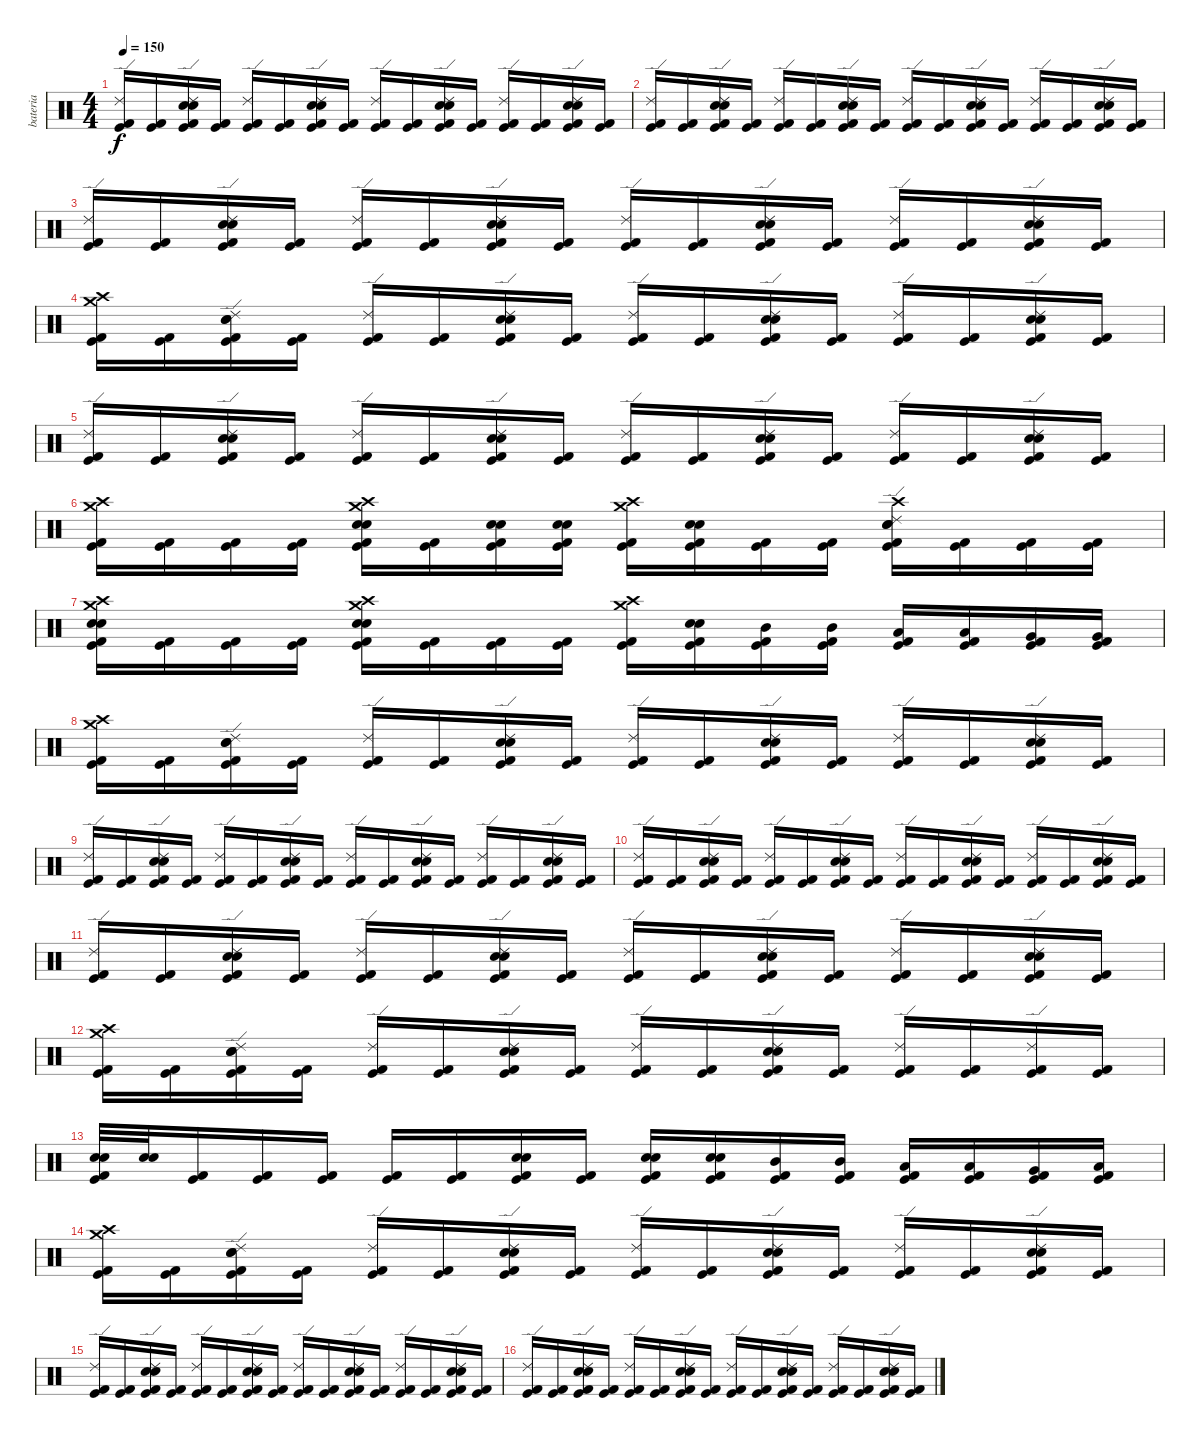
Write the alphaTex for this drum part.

\track ("bateria" "bateria") {instrument percussion}
\staff {score}
\articulation defaults
\ts (4 4)
\tempo 150
\clef neutral
\ks c
("Ride (edge) 2" "Kick (hit) 2" "Kick (hit)").16{dy f} ("Kick (hit) 2" "Kick (hit)").16 ("Ride (edge) 2" "Snare (hit) 2" "Electric Snare (hit)" "Kick (hit) 2" "Kick (hit)").16 ("Kick (hit) 2" "Kick (hit)").16 ("Ride (edge) 2" "Kick (hit) 2" "Kick (hit)").16 ("Kick (hit) 2" "Kick (hit)").16 ("Ride (edge) 2" "Electric Snare (hit)" "Snare (hit) 2" "Kick (hit) 2" "Kick (hit)").16 ("Kick (hit) 2" "Kick (hit)").16 ("Ride (edge) 2" "Kick (hit) 2" "Kick (hit)").16 ("Kick (hit) 2" "Kick (hit)").16 ("Ride (edge) 2" "Snare (hit) 2" "Electric Snare (hit)" "Kick (hit) 2" "Kick (hit)").16 ("Kick (hit) 2" "Kick (hit)").16 ("Ride (edge) 2" "Kick (hit) 2" "Kick (hit)").16 ("Kick (hit) 2" "Kick (hit)").16 ("Ride (edge) 2" "Electric Snare (hit)" "Snare (hit) 2" "Kick (hit) 2" "Kick (hit)").16 ("Kick (hit) 2" "Kick (hit)").16 |
("Ride (edge) 2" "Kick (hit) 2" "Kick (hit)").16 ("Kick (hit) 2" "Kick (hit)").16 ("Ride (edge) 2" "Snare (hit) 2" "Electric Snare (hit)" "Kick (hit) 2" "Kick (hit)").16 ("Kick (hit) 2" "Kick (hit)").16 ("Ride (edge) 2" "Kick (hit) 2" "Kick (hit)").16 ("Kick (hit) 2" "Kick (hit)").16 ("Ride (edge) 2" "Electric Snare (hit)" "Snare (hit) 2" "Kick (hit) 2" "Kick (hit)").16 ("Kick (hit) 2" "Kick (hit)").16 ("Ride (edge) 2" "Kick (hit) 2" "Kick (hit)").16 ("Kick (hit) 2" "Kick (hit)").16 ("Ride (edge) 2" "Snare (hit) 2" "Electric Snare (hit)" "Kick (hit) 2" "Kick (hit)").16 ("Kick (hit) 2" "Kick (hit)").16 ("Ride (edge) 2" "Kick (hit) 2" "Kick (hit)").16 ("Kick (hit) 2" "Kick (hit)").16 ("Ride (edge) 2" "Electric Snare (hit)" "Snare (hit) 2" "Kick (hit) 2" "Kick (hit)").16 ("Kick (hit) 2" "Kick (hit)").16 |
("Ride (edge) 2" "Kick (hit) 2" "Kick (hit)").16 ("Kick (hit) 2" "Kick (hit)").16 ("Ride (edge) 2" "Snare (hit) 2" "Electric Snare (hit)" "Kick (hit) 2" "Kick (hit)").16 ("Kick (hit) 2" "Kick (hit)").16 ("Ride (edge) 2" "Kick (hit) 2" "Kick (hit)").16 ("Kick (hit) 2" "Kick (hit)").16 ("Ride (edge) 2" "Electric Snare (hit)" "Snare (hit) 2" "Kick (hit) 2" "Kick (hit)").16 ("Kick (hit) 2" "Kick (hit)").16 ("Ride (edge) 2" "Kick (hit) 2" "Kick (hit)").16 ("Kick (hit) 2" "Kick (hit)").16 ("Ride (edge) 2" "Snare (hit) 2" "Electric Snare (hit)" "Kick (hit) 2" "Kick (hit)").16 ("Kick (hit) 2" "Kick (hit)").16 ("Ride (edge) 2" "Kick (hit) 2" "Kick (hit)").16 ("Kick (hit) 2" "Kick (hit)").16 ("Ride (edge) 2" "Electric Snare (hit)" "Snare (hit) 2" "Kick (hit) 2" "Kick (hit)").16 ("Kick (hit) 2" "Kick (hit)").16 |
("Crash high (hit)" "Crash medium (hit)" "Kick (hit) 2" "Kick (hit)").16 ("Kick (hit) 2" "Kick (hit)").16 ("Ride (edge) 2" "Snare (hit) 2" "Electric Snare (hit)" "Kick (hit) 2" "Kick (hit)").16 ("Kick (hit) 2" "Kick (hit)").16 ("Ride (edge) 2" "Kick (hit) 2" "Kick (hit)").16 ("Kick (hit) 2" "Kick (hit)").16 ("Ride (edge) 2" "Electric Snare (hit)" "Snare (hit) 2" "Kick (hit) 2" "Kick (hit)").16 ("Kick (hit) 2" "Kick (hit)").16 ("Ride (edge) 2" "Kick (hit) 2" "Kick (hit)").16 ("Kick (hit) 2" "Kick (hit)").16 ("Ride (edge) 2" "Snare (hit) 2" "Electric Snare (hit)" "Kick (hit) 2" "Kick (hit)").16 ("Kick (hit) 2" "Kick (hit)").16 ("Ride (edge) 2" "Kick (hit) 2" "Kick (hit)").16 ("Kick (hit) 2" "Kick (hit)").16 ("Ride (edge) 2" "Electric Snare (hit)" "Snare (hit) 2" "Kick (hit) 2" "Kick (hit)").16 ("Kick (hit) 2" "Kick (hit)").16 |
("Ride (edge) 2" "Kick (hit) 2" "Kick (hit)").16 ("Kick (hit) 2" "Kick (hit)").16 ("Ride (edge) 2" "Snare (hit) 2" "Electric Snare (hit)" "Kick (hit) 2" "Kick (hit)").16 ("Kick (hit) 2" "Kick (hit)").16 ("Ride (edge) 2" "Kick (hit) 2" "Kick (hit)").16 ("Kick (hit) 2" "Kick (hit)").16 ("Ride (edge) 2" "Electric Snare (hit)" "Snare (hit) 2" "Kick (hit) 2" "Kick (hit)").16 ("Kick (hit) 2" "Kick (hit)").16 ("Ride (edge) 2" "Kick (hit) 2" "Kick (hit)").16 ("Kick (hit) 2" "Kick (hit)").16 ("Ride (edge) 2" "Snare (hit) 2" "Electric Snare (hit)" "Kick (hit) 2" "Kick (hit)").16 ("Kick (hit) 2" "Kick (hit)").16 ("Ride (edge) 2" "Kick (hit) 2" "Kick (hit)").16 ("Kick (hit) 2" "Kick (hit)").16 ("Ride (edge) 2" "Electric Snare (hit)" "Snare (hit) 2" "Kick (hit) 2" "Kick (hit)").16 ("Kick (hit) 2" "Kick (hit)").16 |
("Crash high (hit)" "Crash medium (hit)" "Kick (hit) 2" "Kick (hit)").16 ("Kick (hit) 2" "Kick (hit)").16 ("Kick (hit) 2" "Kick (hit)").16 ("Kick (hit) 2" "Kick (hit)").16 ("Electric Snare (hit)" "Snare (hit) 2" "Crash high (hit)" "Crash medium (hit)" "Kick (hit) 2" "Kick (hit)").16 ("Kick (hit) 2" "Kick (hit)").16 ("Snare (hit) 2" "Electric Snare (hit)" "Kick (hit) 2" "Kick (hit)").16 ("Electric Snare (hit)" "Snare (hit) 2" "Kick (hit) 2" "Kick (hit)").16 ("Crash high (hit)" "Crash medium (hit)" "Kick (hit) 2" "Kick (hit)").16 ("Electric Snare (hit)" "Snare (hit) 2" "Kick (hit) 2" "Kick (hit)").16 ("Kick (hit) 2" "Kick (hit)").16 ("Kick (hit) 2" "Kick (hit)").16 ("Electric Snare (hit)" "Crash high (hit)" "Snare (hit) 2" "Ride (edge) 2" "Kick (hit) 2" "Kick (hit)").16 ("Kick (hit) 2" "Kick (hit)").16 ("Kick (hit) 2" "Kick (hit)").16 ("Kick (hit) 2" "Kick (hit)").16 |
("Electric Snare (hit)" "Snare (hit) 2" "Crash high (hit)" "Crash medium (hit)" "Kick (hit) 2" "Kick (hit)").16 ("Kick (hit) 2" "Kick (hit)").16 ("Kick (hit) 2" "Kick (hit)").16 ("Kick (hit) 2" "Kick (hit)").16 ("Crash high (hit)" "Electric Snare (hit)" "Snare (hit) 2" "Crash medium (hit)" "Kick (hit) 2" "Kick (hit)").16 ("Kick (hit) 2" "Kick (hit)").16 ("Kick (hit) 2" "Kick (hit)").16 ("Kick (hit) 2" "Kick (hit)").16 ("Crash high (hit)" "Crash medium (hit)" "Kick (hit) 2" "Kick (hit)").16 ("Snare (hit) 2" "Electric Snare (hit)" "Kick (hit) 2" "Kick (hit)").16 ("Mid Tom (hit)" "Kick (hit) 2" "Kick (hit)").16 ("Mid Tom (hit)" "Kick (hit) 2" "Kick (hit)").16 ("Low Tom (hit)" "Kick (hit) 2" "Kick (hit)").16 ("Low Tom (hit)" "Kick (hit) 2" "Kick (hit)").16 ("Very Low Tom (hit)" "Kick (hit) 2" "Kick (hit)").16 ("Very Low Tom (hit)" "Kick (hit) 2" "Kick (hit)").16 |
("Crash high (hit)" "Crash medium (hit)" "Kick (hit) 2" "Kick (hit)").16 ("Kick (hit) 2" "Kick (hit)").16 ("Ride (edge) 2" "Snare (hit) 2" "Electric Snare (hit)" "Kick (hit) 2" "Kick (hit)").16 ("Kick (hit) 2" "Kick (hit)").16 ("Ride (edge) 2" "Kick (hit) 2" "Kick (hit)").16 ("Kick (hit) 2" "Kick (hit)").16 ("Ride (edge) 2" "Electric Snare (hit)" "Snare (hit) 2" "Kick (hit) 2" "Kick (hit)").16 ("Kick (hit) 2" "Kick (hit)").16 ("Ride (edge) 2" "Kick (hit) 2" "Kick (hit)").16 ("Kick (hit) 2" "Kick (hit)").16 ("Ride (edge) 2" "Snare (hit) 2" "Electric Snare (hit)" "Kick (hit) 2" "Kick (hit)").16 ("Kick (hit) 2" "Kick (hit)").16 ("Ride (edge) 2" "Kick (hit) 2" "Kick (hit)").16 ("Kick (hit) 2" "Kick (hit)").16 ("Ride (edge) 2" "Electric Snare (hit)" "Snare (hit) 2" "Kick (hit) 2" "Kick (hit)").16 ("Kick (hit) 2" "Kick (hit)").16 |
("Ride (edge) 2" "Kick (hit) 2" "Kick (hit)").16 ("Kick (hit) 2" "Kick (hit)").16 ("Ride (edge) 2" "Snare (hit) 2" "Electric Snare (hit)" "Kick (hit) 2" "Kick (hit)").16 ("Kick (hit) 2" "Kick (hit)").16 ("Ride (edge) 2" "Kick (hit) 2" "Kick (hit)").16 ("Kick (hit) 2" "Kick (hit)").16 ("Ride (edge) 2" "Electric Snare (hit)" "Snare (hit) 2" "Kick (hit) 2" "Kick (hit)").16 ("Kick (hit) 2" "Kick (hit)").16 ("Ride (edge) 2" "Kick (hit) 2" "Kick (hit)").16 ("Kick (hit) 2" "Kick (hit)").16 ("Ride (edge) 2" "Snare (hit) 2" "Electric Snare (hit)" "Kick (hit) 2" "Kick (hit)").16 ("Kick (hit) 2" "Kick (hit)").16 ("Ride (edge) 2" "Kick (hit) 2" "Kick (hit)").16 ("Kick (hit) 2" "Kick (hit)").16 ("Ride (edge) 2" "Electric Snare (hit)" "Snare (hit) 2" "Kick (hit) 2" "Kick (hit)").16 ("Kick (hit) 2" "Kick (hit)").16 |
("Ride (edge) 2" "Kick (hit) 2" "Kick (hit)").16 ("Kick (hit) 2" "Kick (hit)").16 ("Ride (edge) 2" "Snare (hit) 2" "Electric Snare (hit)" "Kick (hit) 2" "Kick (hit)").16 ("Kick (hit) 2" "Kick (hit)").16 ("Ride (edge) 2" "Kick (hit) 2" "Kick (hit)").16 ("Kick (hit) 2" "Kick (hit)").16 ("Ride (edge) 2" "Electric Snare (hit)" "Snare (hit) 2" "Kick (hit) 2" "Kick (hit)").16 ("Kick (hit) 2" "Kick (hit)").16 ("Ride (edge) 2" "Kick (hit) 2" "Kick (hit)").16 ("Kick (hit) 2" "Kick (hit)").16 ("Ride (edge) 2" "Snare (hit) 2" "Electric Snare (hit)" "Kick (hit) 2" "Kick (hit)").16 ("Kick (hit) 2" "Kick (hit)").16 ("Ride (edge) 2" "Kick (hit) 2" "Kick (hit)").16 ("Kick (hit) 2" "Kick (hit)").16 ("Ride (edge) 2" "Electric Snare (hit)" "Snare (hit) 2" "Kick (hit) 2" "Kick (hit)").16 ("Kick (hit) 2" "Kick (hit)").16 |
("Ride (edge) 2" "Kick (hit) 2" "Kick (hit)").16 ("Kick (hit) 2" "Kick (hit)").16 ("Ride (edge) 2" "Snare (hit) 2" "Electric Snare (hit)" "Kick (hit) 2" "Kick (hit)").16 ("Kick (hit) 2" "Kick (hit)").16 ("Ride (edge) 2" "Kick (hit) 2" "Kick (hit)").16 ("Kick (hit) 2" "Kick (hit)").16 ("Ride (edge) 2" "Electric Snare (hit)" "Snare (hit) 2" "Kick (hit) 2" "Kick (hit)").16 ("Kick (hit) 2" "Kick (hit)").16 ("Ride (edge) 2" "Kick (hit) 2" "Kick (hit)").16 ("Kick (hit) 2" "Kick (hit)").16 ("Ride (edge) 2" "Snare (hit) 2" "Electric Snare (hit)" "Kick (hit) 2" "Kick (hit)").16 ("Kick (hit) 2" "Kick (hit)").16 ("Ride (edge) 2" "Kick (hit) 2" "Kick (hit)").16 ("Kick (hit) 2" "Kick (hit)").16 ("Ride (edge) 2" "Electric Snare (hit)" "Snare (hit) 2" "Kick (hit) 2" "Kick (hit)").16 ("Kick (hit) 2" "Kick (hit)").16 |
("Crash high (hit)" "Crash medium (hit)" "Kick (hit) 2" "Kick (hit)").16 ("Kick (hit) 2" "Kick (hit)").16 ("Ride (edge) 2" "Snare (hit) 2" "Electric Snare (hit)" "Kick (hit) 2" "Kick (hit)").16 ("Kick (hit) 2" "Kick (hit)").16 ("Ride (edge) 2" "Kick (hit) 2" "Kick (hit)").16 ("Kick (hit) 2" "Kick (hit)").16 ("Ride (edge) 2" "Electric Snare (hit)" "Snare (hit) 2" "Kick (hit) 2" "Kick (hit)").16 ("Kick (hit) 2" "Kick (hit)").16 ("Ride (edge) 2" "Kick (hit) 2" "Kick (hit)").16 ("Kick (hit) 2" "Kick (hit)").16 ("Ride (edge) 2" "Snare (hit) 2" "Electric Snare (hit)" "Kick (hit) 2" "Kick (hit)").16 ("Kick (hit) 2" "Kick (hit)").16 ("Ride (edge) 2" "Kick (hit) 2" "Kick (hit)").16 ("Kick (hit) 2" "Kick (hit)").16 ("Ride (edge) 2" "Kick (hit) 2" "Kick (hit)").16 ("Kick (hit) 2" "Kick (hit)").16 |
("Electric Snare (hit)" "Kick (hit) 2" "Kick (hit)" "Snare (hit) 2").32 ("Electric Snare (hit)" "Snare (hit) 2").32 ("Kick (hit) 2" "Kick (hit)").16 ("Kick (hit) 2" "Kick (hit)").16 ("Kick (hit) 2" "Kick (hit)").16 ("Kick (hit) 2" "Kick (hit)").16 ("Kick (hit) 2" "Kick (hit)").16 ("Electric Snare (hit)" "Snare (hit) 2" "Kick (hit) 2" "Kick (hit)").16 ("Kick (hit) 2" "Kick (hit)").16 ("Electric Snare (hit)" "Snare (hit) 2" "Kick (hit)" "Kick (hit) 2").16 ("Electric Snare (hit)" "Snare (hit) 2" "Kick (hit) 2" "Kick (hit)").16 ("Mid Tom (hit)" "Kick (hit) 2" "Kick (hit)").16 ("Mid Tom (hit)" "Kick (hit) 2" "Kick (hit)").16 ("Low Tom (hit)" "Kick (hit) 2" "Kick (hit)").16 ("Low Tom (hit)" "Kick (hit) 2" "Kick (hit)").16 ("Very Low Tom (hit)" "Kick (hit) 2" "Kick (hit)").16 ("Low Floor Tom (hit)" "Kick (hit) 2" "Kick (hit)").16 |
("Crash high (hit)" "Crash medium (hit)" "Kick (hit) 2" "Kick (hit)").16 ("Kick (hit) 2" "Kick (hit)").16 ("Ride (edge) 2" "Snare (hit) 2" "Electric Snare (hit)" "Kick (hit) 2" "Kick (hit)").16 ("Kick (hit) 2" "Kick (hit)").16 ("Ride (edge) 2" "Kick (hit) 2" "Kick (hit)").16 ("Kick (hit) 2" "Kick (hit)").16 ("Ride (edge) 2" "Electric Snare (hit)" "Snare (hit) 2" "Kick (hit) 2" "Kick (hit)").16 ("Kick (hit) 2" "Kick (hit)").16 ("Ride (edge) 2" "Kick (hit) 2" "Kick (hit)").16 ("Kick (hit) 2" "Kick (hit)").16 ("Ride (edge) 2" "Snare (hit) 2" "Electric Snare (hit)" "Kick (hit) 2" "Kick (hit)").16 ("Kick (hit) 2" "Kick (hit)").16 ("Ride (edge) 2" "Kick (hit) 2" "Kick (hit)").16 ("Kick (hit) 2" "Kick (hit)").16 ("Ride (edge) 2" "Electric Snare (hit)" "Snare (hit) 2" "Kick (hit) 2" "Kick (hit)").16 ("Kick (hit) 2" "Kick (hit)").16 |
("Ride (edge) 2" "Kick (hit) 2" "Kick (hit)").16 ("Kick (hit) 2" "Kick (hit)").16 ("Ride (edge) 2" "Snare (hit) 2" "Electric Snare (hit)" "Kick (hit) 2" "Kick (hit)").16 ("Kick (hit) 2" "Kick (hit)").16 ("Ride (edge) 2" "Kick (hit) 2" "Kick (hit)").16 ("Kick (hit) 2" "Kick (hit)").16 ("Ride (edge) 2" "Electric Snare (hit)" "Snare (hit) 2" "Kick (hit) 2" "Kick (hit)").16 ("Kick (hit) 2" "Kick (hit)").16 ("Ride (edge) 2" "Kick (hit) 2" "Kick (hit)").16 ("Kick (hit) 2" "Kick (hit)").16 ("Ride (edge) 2" "Snare (hit) 2" "Electric Snare (hit)" "Kick (hit) 2" "Kick (hit)").16 ("Kick (hit) 2" "Kick (hit)").16 ("Ride (edge) 2" "Kick (hit) 2" "Kick (hit)").16 ("Kick (hit) 2" "Kick (hit)").16 ("Ride (edge) 2" "Electric Snare (hit)" "Snare (hit) 2" "Kick (hit) 2" "Kick (hit)").16 ("Kick (hit) 2" "Kick (hit)").16 |
("Ride (edge) 2" "Kick (hit) 2" "Kick (hit)").16 ("Kick (hit) 2" "Kick (hit)").16 ("Ride (edge) 2" "Snare (hit) 2" "Electric Snare (hit)" "Kick (hit) 2" "Kick (hit)").16 ("Kick (hit) 2" "Kick (hit)").16 ("Ride (edge) 2" "Kick (hit) 2" "Kick (hit)").16 ("Kick (hit) 2" "Kick (hit)").16 ("Ride (edge) 2" "Electric Snare (hit)" "Snare (hit) 2" "Kick (hit) 2" "Kick (hit)").16 ("Kick (hit) 2" "Kick (hit)").16 ("Ride (edge) 2" "Kick (hit) 2" "Kick (hit)").16 ("Kick (hit) 2" "Kick (hit)").16 ("Ride (edge) 2" "Snare (hit) 2" "Electric Snare (hit)" "Kick (hit) 2" "Kick (hit)").16 ("Kick (hit) 2" "Kick (hit)").16 ("Ride (edge) 2" "Kick (hit) 2" "Kick (hit)").16 ("Kick (hit) 2" "Kick (hit)").16 ("Ride (edge) 2" "Electric Snare (hit)" "Snare (hit) 2" "Kick (hit) 2" "Kick (hit)").16 ("Kick (hit) 2" "Kick (hit)").16
